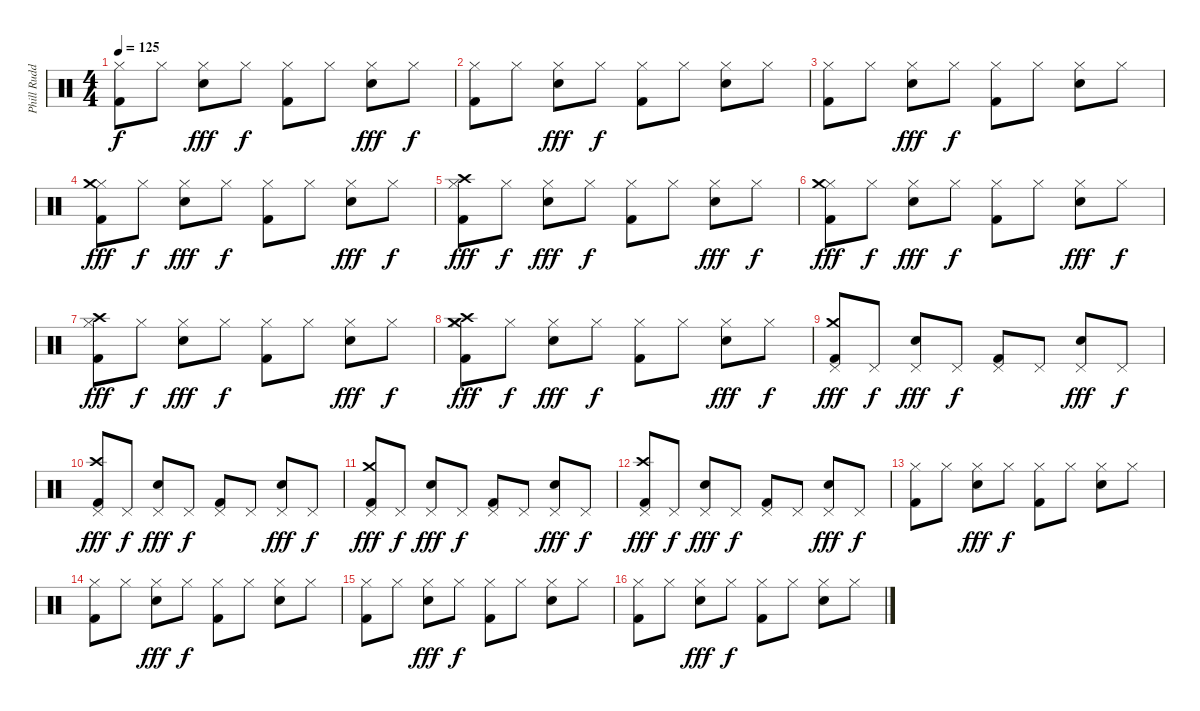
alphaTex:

\track ("Phill Rudd" "Phill Rudd") {instrument percussion}
\staff {score}
\articulation defaults
\ts (4 4)
\tempo 125
\clef neutral
\ks c
("Hi-Hat (closed)" "Kick (hit) 2").8{dy f} "Hi-Hat (closed)".8 ("Hi-Hat (closed)" "Electric Snare (hit)").8{dy fff} "Hi-Hat (closed)".8{dy f} ("Hi-Hat (closed)" "Kick (hit) 2").8 "Hi-Hat (closed)".8 ("Hi-Hat (closed)" "Electric Snare (hit)").8{dy fff} "Hi-Hat (closed)".8{dy f} |
("Hi-Hat (closed)" "Kick (hit) 2").8 "Hi-Hat (closed)".8 ("Hi-Hat (closed)" "Electric Snare (hit)").8{dy fff} "Hi-Hat (closed)".8{dy f} ("Hi-Hat (closed)" "Kick (hit) 2").8 "Hi-Hat (closed)".8 ("Hi-Hat (closed)" "Electric Snare (hit)").8 "Hi-Hat (closed)".8 |
("Hi-Hat (closed)" "Kick (hit) 2").8 "Hi-Hat (closed)".8 ("Hi-Hat (closed)" "Electric Snare (hit)").8{dy fff} "Hi-Hat (closed)".8{dy f} ("Hi-Hat (closed)" "Kick (hit) 2").8 "Hi-Hat (closed)".8 ("Hi-Hat (closed)" "Electric Snare (hit)").8 "Hi-Hat (closed)".8 |
("Hi-Hat (closed)" "Kick (hit) 2" "Crash medium (hit)").8{dy fff} "Hi-Hat (closed)".8{dy f} ("Hi-Hat (closed)" "Electric Snare (hit)").8{dy fff} "Hi-Hat (closed)".8{dy f} ("Hi-Hat (closed)" "Kick (hit) 2").8 "Hi-Hat (closed)".8 ("Hi-Hat (closed)" "Electric Snare (hit)").8{dy fff} "Hi-Hat (closed)".8{dy f} |
("Hi-Hat (closed)" "Kick (hit) 2" "Crash high (hit)").8{dy fff} "Hi-Hat (closed)".8{dy f} ("Hi-Hat (closed)" "Electric Snare (hit)").8{dy fff} "Hi-Hat (closed)".8{dy f} ("Hi-Hat (closed)" "Kick (hit) 2").8 "Hi-Hat (closed)".8 ("Hi-Hat (closed)" "Electric Snare (hit)").8{dy fff} "Hi-Hat (closed)".8{dy f} |
("Hi-Hat (closed)" "Kick (hit) 2" "Crash medium (hit)").8{dy fff} "Hi-Hat (closed)".8{dy f} ("Hi-Hat (closed)" "Electric Snare (hit)").8{dy fff} "Hi-Hat (closed)".8{dy f} ("Hi-Hat (closed)" "Kick (hit) 2").8 "Hi-Hat (closed)".8 ("Hi-Hat (closed)" "Electric Snare (hit)").8{dy fff} "Hi-Hat (closed)".8{dy f} |
("Hi-Hat (closed)" "Kick (hit) 2" "Crash high (hit)").8{dy fff} "Hi-Hat (closed)".8{dy f} ("Hi-Hat (closed)" "Electric Snare (hit)").8{dy fff} "Hi-Hat (closed)".8{dy f} ("Hi-Hat (closed)" "Kick (hit) 2").8 "Hi-Hat (closed)".8 ("Hi-Hat (closed)" "Electric Snare (hit)").8{dy fff} "Hi-Hat (closed)".8{dy f} |
("Hi-Hat (closed)" "Kick (hit) 2" "Crash medium (hit)" "Crash high (hit)").8{dy fff} "Hi-Hat (closed)".8{dy f} ("Hi-Hat (closed)" "Electric Snare (hit)").8{dy fff} "Hi-Hat (closed)".8{dy f} ("Hi-Hat (closed)" "Kick (hit) 2").8 "Hi-Hat (closed)".8 ("Hi-Hat (closed)" "Electric Snare (hit)").8{dy fff} "Hi-Hat (closed)".8{dy f} |
("Pedal Hi-Hat (hit)" "Kick (hit) 2" "Crash medium (hit)").8{dy fff} "Pedal Hi-Hat (hit)".8{dy f} ("Pedal Hi-Hat (hit)" "Electric Snare (hit)").8{dy fff} "Pedal Hi-Hat (hit)".8{dy f} ("Pedal Hi-Hat (hit)" "Kick (hit) 2").8 "Pedal Hi-Hat (hit)".8 ("Pedal Hi-Hat (hit)" "Electric Snare (hit)").8{dy fff} "Pedal Hi-Hat (hit)".8{dy f} |
("Pedal Hi-Hat (hit)" "Kick (hit) 2" "Crash high (hit)").8{dy fff} "Pedal Hi-Hat (hit)".8{dy f} ("Pedal Hi-Hat (hit)" "Electric Snare (hit)").8{dy fff} "Pedal Hi-Hat (hit)".8{dy f} ("Pedal Hi-Hat (hit)" "Kick (hit) 2").8 "Pedal Hi-Hat (hit)".8 ("Pedal Hi-Hat (hit)" "Electric Snare (hit)").8{dy fff} "Pedal Hi-Hat (hit)".8{dy f} |
("Pedal Hi-Hat (hit)" "Kick (hit) 2" "Crash medium (hit)").8{dy fff} "Pedal Hi-Hat (hit)".8{dy f} ("Pedal Hi-Hat (hit)" "Electric Snare (hit)").8{dy fff} "Pedal Hi-Hat (hit)".8{dy f} ("Pedal Hi-Hat (hit)" "Kick (hit) 2").8 "Pedal Hi-Hat (hit)".8 ("Pedal Hi-Hat (hit)" "Electric Snare (hit)").8{dy fff} "Pedal Hi-Hat (hit)".8{dy f} |
("Pedal Hi-Hat (hit)" "Kick (hit) 2" "Crash high (hit)").8{dy fff} "Pedal Hi-Hat (hit)".8{dy f} ("Pedal Hi-Hat (hit)" "Electric Snare (hit)").8{dy fff} "Pedal Hi-Hat (hit)".8{dy f} ("Pedal Hi-Hat (hit)" "Kick (hit) 2").8 "Pedal Hi-Hat (hit)".8 ("Pedal Hi-Hat (hit)" "Electric Snare (hit)").8{dy fff} "Pedal Hi-Hat (hit)".8{dy f} |
("Hi-Hat (closed)" "Kick (hit) 2").8 "Hi-Hat (closed)".8 ("Hi-Hat (closed)" "Electric Snare (hit)").8{dy fff} "Hi-Hat (closed)".8{dy f} ("Hi-Hat (closed)" "Kick (hit) 2").8 "Hi-Hat (closed)".8 ("Hi-Hat (closed)" "Electric Snare (hit)").8 "Hi-Hat (closed)".8 |
("Hi-Hat (closed)" "Kick (hit) 2").8 "Hi-Hat (closed)".8 ("Hi-Hat (closed)" "Electric Snare (hit)").8{dy fff} "Hi-Hat (closed)".8{dy f} ("Hi-Hat (closed)" "Kick (hit) 2").8 "Hi-Hat (closed)".8 ("Hi-Hat (closed)" "Electric Snare (hit)").8 "Hi-Hat (closed)".8 |
("Hi-Hat (closed)" "Kick (hit) 2").8 "Hi-Hat (closed)".8 ("Hi-Hat (closed)" "Electric Snare (hit)").8{dy fff} "Hi-Hat (closed)".8{dy f} ("Hi-Hat (closed)" "Kick (hit) 2").8 "Hi-Hat (closed)".8 ("Hi-Hat (closed)" "Electric Snare (hit)").8 "Hi-Hat (closed)".8 |
("Hi-Hat (closed)" "Kick (hit) 2").8 "Hi-Hat (closed)".8 ("Hi-Hat (closed)" "Electric Snare (hit)").8{dy fff} "Hi-Hat (closed)".8{dy f} ("Hi-Hat (closed)" "Kick (hit) 2").8 "Hi-Hat (closed)".8 ("Hi-Hat (closed)" "Electric Snare (hit)").8 "Hi-Hat (closed)".8
